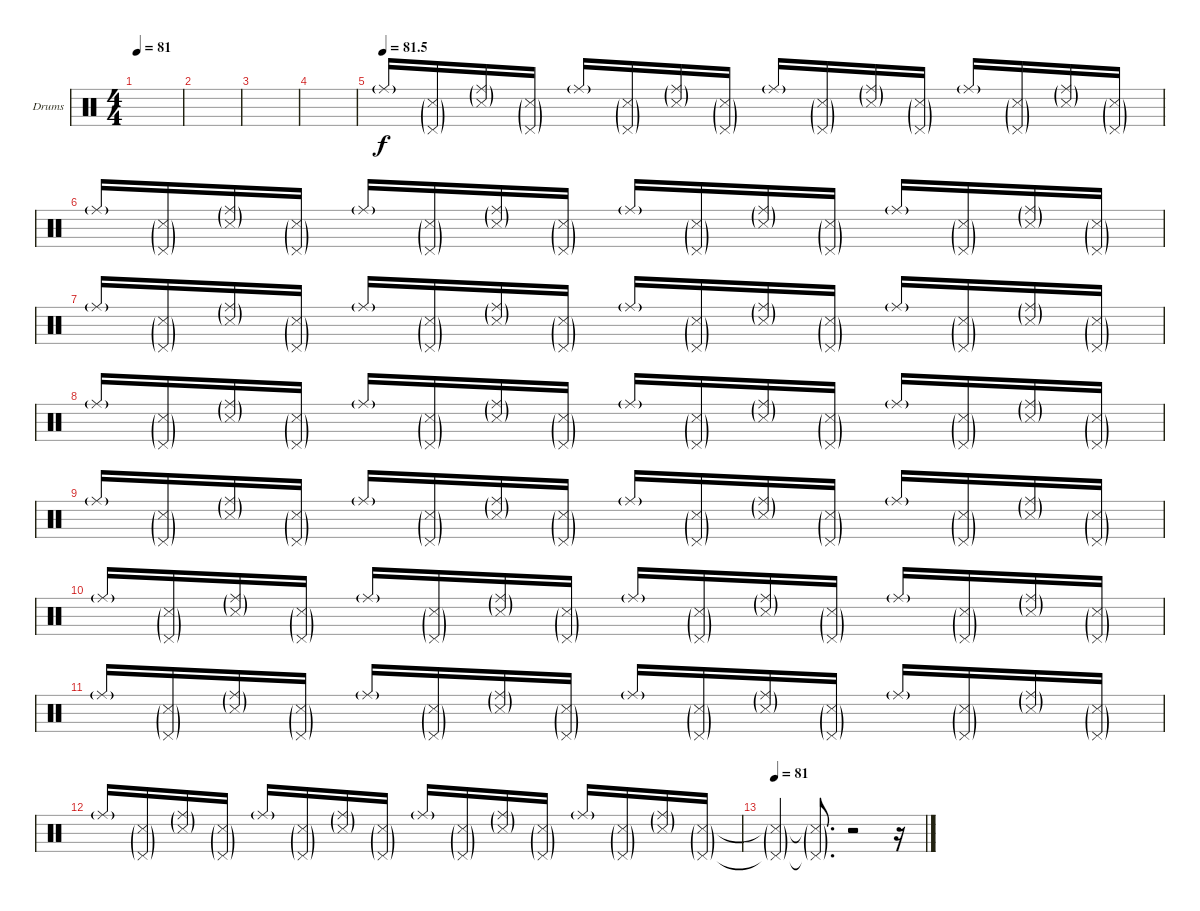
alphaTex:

\defaultSystemsLayout 4
\bracketExtendMode groupsimilarinstruments
\firstSystemTrackNameOrientation horizontal
\otherSystemsTrackNameOrientation horizontal
\track ("Drumkit" "Drums") {instrument percussion}
\staff {score}
\articulation defaults
\ts (4 4)
\tempo 81
\clef neutral
\scale
0.333333
\ks c
|
\scale
0.333333 |
\scale
0.333333 |
\scale
0.333333 |
\tempo
81.5
\scale
0.333333 "Ride (middle)"{g}.16 ("Snare (side stick) 3"{g} "Pedal Hi-Hat (hit)"{g}).16 ("Snare (side stick) 3"{g} "Ride (middle)"{g}).16 ("Snare (side stick) 3"{g} "Pedal Hi-Hat (hit)"{g}).16 "Ride (middle)"{g}.16 ("Snare (side stick) 3"{g} "Pedal Hi-Hat (hit)"{g}).16 ("Snare (side stick) 3"{g} "Ride (middle)"{g}).16 ("Snare (side stick) 3"{g} "Pedal Hi-Hat (hit)"{g}).16 "Ride (middle)"{g}.16 ("Snare (side stick) 3"{g} "Pedal Hi-Hat (hit)"{g}).16 ("Snare (side stick) 3"{g} "Ride (middle)"{g}).16 ("Snare (side stick) 3"{g} "Pedal Hi-Hat (hit)"{g}).16 "Ride (middle)"{g}.16 ("Snare (side stick) 3"{g} "Pedal Hi-Hat (hit)"{g}).16 ("Snare (side stick) 3"{g} "Ride (middle)"{g}).16 ("Snare (side stick) 3"{g} "Pedal Hi-Hat (hit)"{g}).16 |
\scale
0.333333 "Ride (middle)"{g}.16 ("Snare (side stick) 3"{g} "Pedal Hi-Hat (hit)"{g}).16 ("Snare (side stick) 3"{g} "Ride (middle)"{g}).16 ("Snare (side stick) 3"{g} "Pedal Hi-Hat (hit)"{g}).16 "Ride (middle)"{g}.16 ("Snare (side stick) 3"{g} "Pedal Hi-Hat (hit)"{g}).16 ("Snare (side stick) 3"{g} "Ride (middle)"{g}).16 ("Snare (side stick) 3"{g} "Pedal Hi-Hat (hit)"{g}).16 "Ride (middle)"{g}.16 ("Snare (side stick) 3"{g} "Pedal Hi-Hat (hit)"{g}).16 ("Snare (side stick) 3"{g} "Ride (middle)"{g}).16 ("Snare (side stick) 3"{g} "Pedal Hi-Hat (hit)"{g}).16 "Ride (middle)"{g}.16 ("Snare (side stick) 3"{g} "Pedal Hi-Hat (hit)"{g}).16 ("Snare (side stick) 3"{g} "Ride (middle)"{g}).16 ("Snare (side stick) 3"{g} "Pedal Hi-Hat (hit)"{g}).16 |
\scale
0.333333 "Ride (middle)"{g}.16 ("Snare (side stick) 3"{g} "Pedal Hi-Hat (hit)"{g}).16 ("Snare (side stick) 3"{g} "Ride (middle)"{g}).16 ("Snare (side stick) 3"{g} "Pedal Hi-Hat (hit)"{g}).16 "Ride (middle)"{g}.16 ("Snare (side stick) 3"{g} "Pedal Hi-Hat (hit)"{g}).16 ("Snare (side stick) 3"{g} "Ride (middle)"{g}).16 ("Snare (side stick) 3"{g} "Pedal Hi-Hat (hit)"{g}).16 "Ride (middle)"{g}.16 ("Snare (side stick) 3"{g} "Pedal Hi-Hat (hit)"{g}).16 ("Snare (side stick) 3"{g} "Ride (middle)"{g}).16 ("Snare (side stick) 3"{g} "Pedal Hi-Hat (hit)"{g}).16 "Ride (middle)"{g}.16 ("Snare (side stick) 3"{g} "Pedal Hi-Hat (hit)"{g}).16 ("Snare (side stick) 3"{g} "Ride (middle)"{g}).16 ("Snare (side stick) 3"{g} "Pedal Hi-Hat (hit)"{g}).16 |
\scale
0.333333 "Ride (middle)"{g}.16 ("Snare (side stick) 3"{g} "Pedal Hi-Hat (hit)"{g}).16 ("Snare (side stick) 3"{g} "Ride (middle)"{g}).16 ("Snare (side stick) 3"{g} "Pedal Hi-Hat (hit)"{g}).16 "Ride (middle)"{g}.16 ("Snare (side stick) 3"{g} "Pedal Hi-Hat (hit)"{g}).16 ("Snare (side stick) 3"{g} "Ride (middle)"{g}).16 ("Snare (side stick) 3"{g} "Pedal Hi-Hat (hit)"{g}).16 "Ride (middle)"{g}.16 ("Snare (side stick) 3"{g} "Pedal Hi-Hat (hit)"{g}).16 ("Snare (side stick) 3"{g} "Ride (middle)"{g}).16 ("Snare (side stick) 3"{g} "Pedal Hi-Hat (hit)"{g}).16 "Ride (middle)"{g}.16 ("Snare (side stick) 3"{g} "Pedal Hi-Hat (hit)"{g}).16 ("Snare (side stick) 3"{g} "Ride (middle)"{g}).16 ("Snare (side stick) 3"{g} "Pedal Hi-Hat (hit)"{g}).16 |
\scale
0.333333 "Ride (middle)"{g}.16 ("Snare (side stick) 3"{g} "Pedal Hi-Hat (hit)"{g}).16 ("Snare (side stick) 3"{g} "Ride (middle)"{g}).16 ("Snare (side stick) 3"{g} "Pedal Hi-Hat (hit)"{g}).16 "Ride (middle)"{g}.16 ("Snare (side stick) 3"{g} "Pedal Hi-Hat (hit)"{g}).16 ("Snare (side stick) 3"{g} "Ride (middle)"{g}).16 ("Snare (side stick) 3"{g} "Pedal Hi-Hat (hit)"{g}).16 "Ride (middle)"{g}.16 ("Snare (side stick) 3"{g} "Pedal Hi-Hat (hit)"{g}).16 ("Snare (side stick) 3"{g} "Ride (middle)"{g}).16 ("Snare (side stick) 3"{g} "Pedal Hi-Hat (hit)"{g}).16 "Ride (middle)"{g}.16 ("Snare (side stick) 3"{g} "Pedal Hi-Hat (hit)"{g}).16 ("Snare (side stick) 3"{g} "Ride (middle)"{g}).16 ("Snare (side stick) 3"{g} "Pedal Hi-Hat (hit)"{g}).16 |
\scale
0.333333 "Ride (middle)"{g}.16 ("Snare (side stick) 3"{g} "Pedal Hi-Hat (hit)"{g}).16 ("Snare (side stick) 3"{g} "Ride (middle)"{g}).16 ("Snare (side stick) 3"{g} "Pedal Hi-Hat (hit)"{g}).16 "Ride (middle)"{g}.16 ("Snare (side stick) 3"{g} "Pedal Hi-Hat (hit)"{g}).16 ("Snare (side stick) 3"{g} "Ride (middle)"{g}).16 ("Snare (side stick) 3"{g} "Pedal Hi-Hat (hit)"{g}).16 "Ride (middle)"{g}.16 ("Snare (side stick) 3"{g} "Pedal Hi-Hat (hit)"{g}).16 ("Snare (side stick) 3"{g} "Ride (middle)"{g}).16 ("Snare (side stick) 3"{g} "Pedal Hi-Hat (hit)"{g}).16 "Ride (middle)"{g}.16 ("Snare (side stick) 3"{g} "Pedal Hi-Hat (hit)"{g}).16 ("Snare (side stick) 3"{g} "Ride (middle)"{g}).16 ("Snare (side stick) 3"{g} "Pedal Hi-Hat (hit)"{g}).16 |
\scale
0.333333 "Ride (middle)"{g}.16 ("Snare (side stick) 3"{g} "Pedal Hi-Hat (hit)"{g}).16 ("Snare (side stick) 3"{g} "Ride (middle)"{g}).16 ("Snare (side stick) 3"{g} "Pedal Hi-Hat (hit)"{g}).16 "Ride (middle)"{g}.16 ("Snare (side stick) 3"{g} "Pedal Hi-Hat (hit)"{g}).16 ("Snare (side stick) 3"{g} "Ride (middle)"{g}).16 ("Snare (side stick) 3"{g} "Pedal Hi-Hat (hit)"{g}).16 "Ride (middle)"{g}.16 ("Snare (side stick) 3"{g} "Pedal Hi-Hat (hit)"{g}).16 ("Snare (side stick) 3"{g} "Ride (middle)"{g}).16 ("Snare (side stick) 3"{g} "Pedal Hi-Hat (hit)"{g}).16 "Ride (middle)"{g}.16 ("Snare (side stick) 3"{g} "Pedal Hi-Hat (hit)"{g}).16 ("Snare (side stick) 3"{g} "Ride (middle)"{g}).16 ("Snare (side stick) 3"{g} "Pedal Hi-Hat (hit)"{g}).16 |
\scale
0.333333 "Ride (middle)"{g}.16 ("Snare (side stick) 3"{g} "Pedal Hi-Hat (hit)"{g}).16 ("Snare (side stick) 3"{g} "Ride (middle)"{g}).16 ("Snare (side stick) 3"{g} "Pedal Hi-Hat (hit)"{g}).16 "Ride (middle)"{g}.16 ("Snare (side stick) 3"{g} "Pedal Hi-Hat (hit)"{g}).16 ("Snare (side stick) 3"{g} "Ride (middle)"{g}).16 ("Snare (side stick) 3"{g} "Pedal Hi-Hat (hit)"{g}).16 "Ride (middle)"{g}.16 ("Snare (side stick) 3"{g} "Pedal Hi-Hat (hit)"{g}).16 ("Snare (side stick) 3"{g} "Ride (middle)"{g}).16 ("Snare (side stick) 3"{g} "Pedal Hi-Hat (hit)"{g}).16 "Ride (middle)"{g}.16 ("Snare (side stick) 3"{g} "Pedal Hi-Hat (hit)"{g}).16 ("Snare (side stick) 3"{g} "Ride (middle)"{g}).16 ("Snare (side stick) 3"{g} "Pedal Hi-Hat (hit)"{g}).16 |
\tempo 81
\scale
0.333333 ("Snare (side stick) 3"{g t} "Pedal Hi-Hat (hit)"{g t}).4 ("Snare (side stick) 3"{g t} "Pedal Hi-Hat (hit)"{g t}).8{d} r.2 r.16 |
\scale
0.333333 |
\scale
0.333333 |
\scale
0.333333
